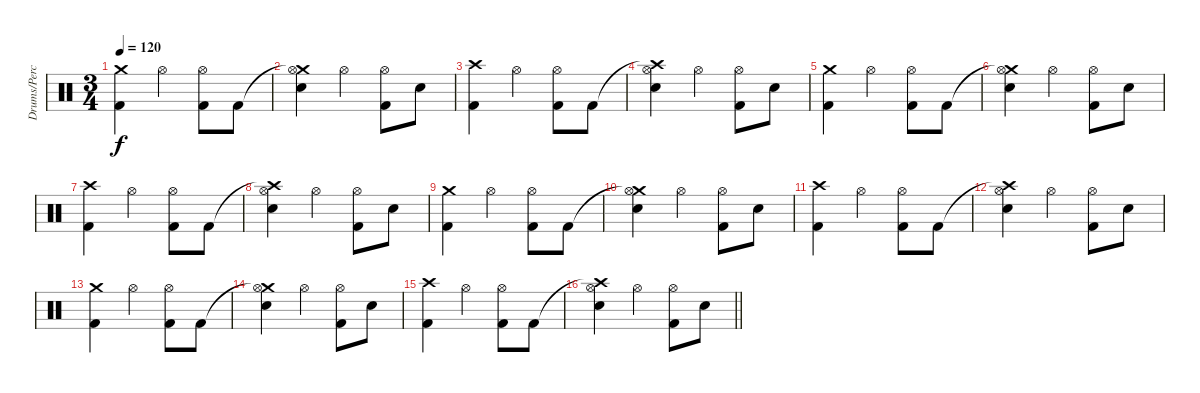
\track ("Drums/Percussion" "Drums/Perc") {instrument percussion}
\staff {score}
\articulation defaults
\ts (3 4)
\tempo 120
\clef neutral
\ks c
("Crash medium (hit)" "Kick (hit) 2").4{dy f} "Hi-Hat (open)".4 ("Hi-Hat (open)" "Kick (hit) 2").8 "Kick (hit) 2".8 |
("Crash medium (hit)"{t} "Hi-Hat (open)" "Snare (hit) 2").4 "Hi-Hat (open)".4 ("Hi-Hat (open)" "Kick (hit) 2").8 "Snare (hit) 2".8 |
("Crash high (hit)" "Kick (hit) 2").4 "Hi-Hat (open)".4 ("Hi-Hat (open)" "Kick (hit) 2").8 "Kick (hit) 2".8 |
("Crash high (hit)"{t} "Hi-Hat (open)" "Snare (hit) 2").4 "Hi-Hat (open)".4 ("Hi-Hat (open)" "Kick (hit) 2").8 "Snare (hit) 2".8 |
("Crash medium (hit)" "Kick (hit) 2").4 "Hi-Hat (open)".4 ("Hi-Hat (open)" "Kick (hit) 2").8 "Kick (hit) 2".8 |
("Crash medium (hit)"{t} "Hi-Hat (open)" "Snare (hit) 2").4 "Hi-Hat (open)".4 ("Hi-Hat (open)" "Kick (hit) 2").8 "Snare (hit) 2".8 |
("Crash high (hit)" "Kick (hit) 2").4 "Hi-Hat (open)".4 ("Hi-Hat (open)" "Kick (hit) 2").8 "Kick (hit) 2".8 |
("Crash high (hit)"{t} "Hi-Hat (open)" "Snare (hit) 2").4 "Hi-Hat (open)".4 ("Hi-Hat (open)" "Kick (hit) 2").8 "Snare (hit) 2".8 |
("Crash medium (hit)" "Kick (hit) 2").4 "Hi-Hat (open)".4 ("Hi-Hat (open)" "Kick (hit) 2").8 "Kick (hit) 2".8 |
("Crash medium (hit)"{t} "Hi-Hat (open)" "Snare (hit) 2").4 "Hi-Hat (open)".4 ("Hi-Hat (open)" "Kick (hit) 2").8 "Snare (hit) 2".8 |
("Crash high (hit)" "Kick (hit) 2").4 "Hi-Hat (open)".4 ("Hi-Hat (open)" "Kick (hit) 2").8 "Kick (hit) 2".8 |
("Crash high (hit)"{t} "Hi-Hat (open)" "Snare (hit) 2").4 "Hi-Hat (open)".4 ("Hi-Hat (open)" "Kick (hit) 2").8 "Snare (hit) 2".8 |
("Crash medium (hit)" "Kick (hit) 2").4 "Hi-Hat (open)".4 ("Hi-Hat (open)" "Kick (hit) 2").8 "Kick (hit) 2".8 |
("Crash medium (hit)"{t} "Hi-Hat (open)" "Snare (hit) 2").4 "Hi-Hat (open)".4 ("Hi-Hat (open)" "Kick (hit) 2").8 "Snare (hit) 2".8 |
("Crash high (hit)" "Kick (hit) 2").4 "Hi-Hat (open)".4 ("Hi-Hat (open)" "Kick (hit) 2").8 "Kick (hit) 2".8 |
\barLineRight lightlight
("Crash high (hit)"{t} "Hi-Hat (open)" "Snare (hit) 2").4 "Hi-Hat (open)".4 ("Hi-Hat (open)" "Kick (hit) 2").8 "Snare (hit) 2".8
